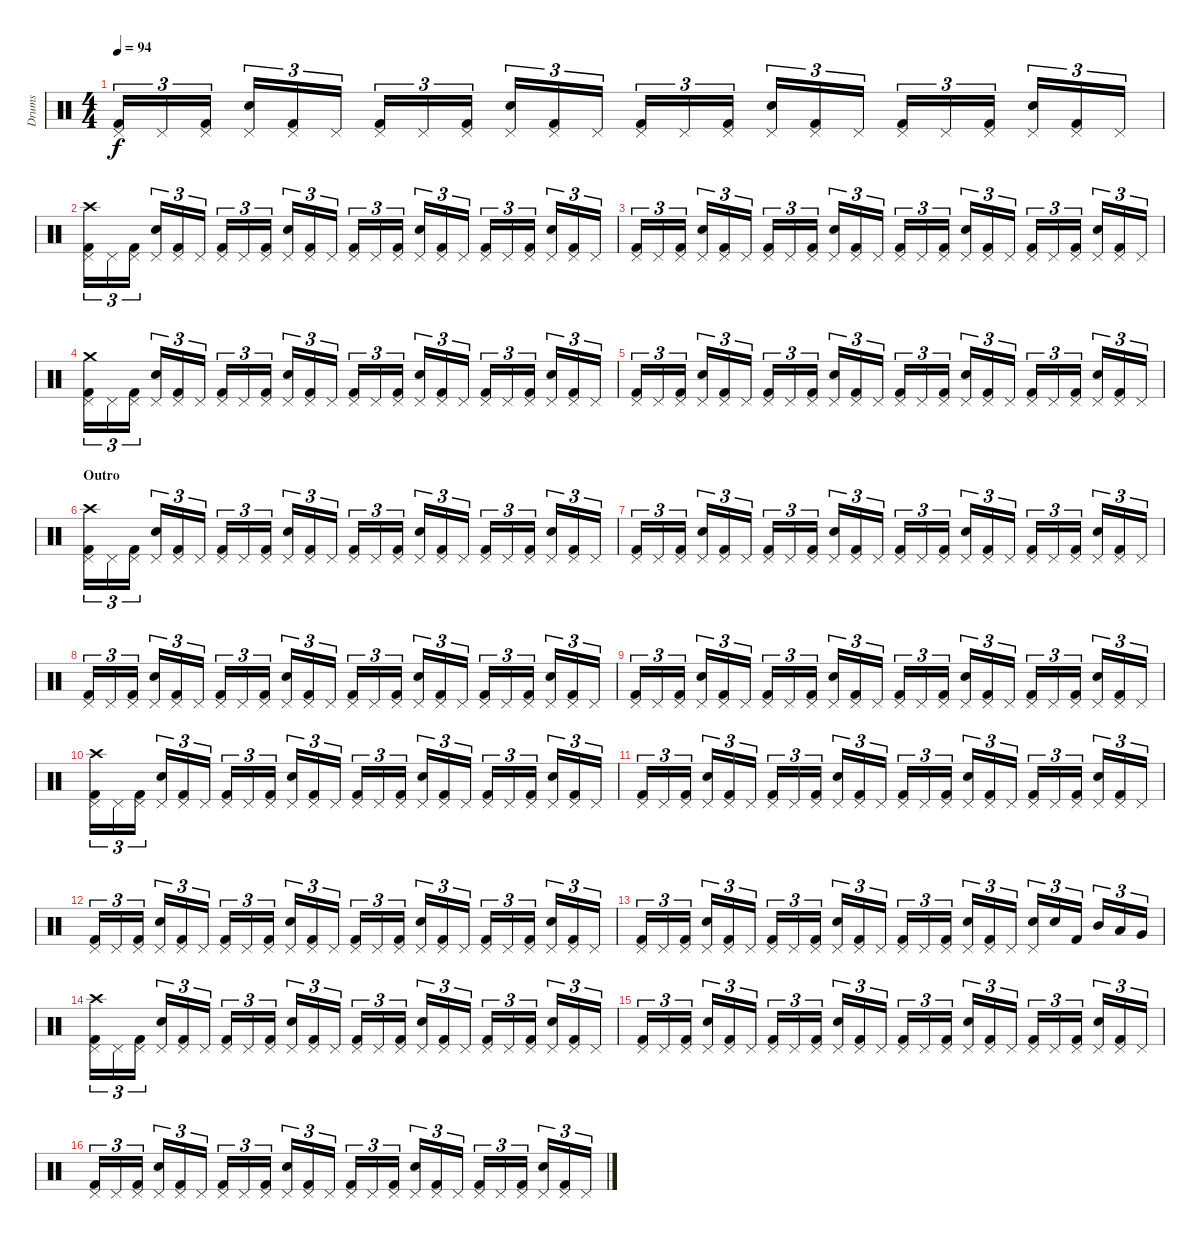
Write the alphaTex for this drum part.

\track ("Drums" "Drums") {instrument percussion}
\staff {score}
\articulation defaults
\ts (4 4)
\tempo 94
\clef neutral
\ks c
("Kick (hit) 2" "Pedal Hi-Hat (hit)").16{tu (3 2) dy f} "Pedal Hi-Hat (hit)".16{tu (3 2)} ("Kick (hit) 2" "Pedal Hi-Hat (hit)").16{tu (3 2)} ("Snare (hit) 2" "Pedal Hi-Hat (hit)").16{tu (3 2)} ("Kick (hit) 2" "Pedal Hi-Hat (hit)").16{tu (3 2)} "Pedal Hi-Hat (hit)".16{tu (3 2)} ("Kick (hit) 2" "Pedal Hi-Hat (hit)").16{tu (3 2)} "Pedal Hi-Hat (hit)".16{tu (3 2)} ("Kick (hit) 2" "Pedal Hi-Hat (hit)").16{tu (3 2)} ("Snare (hit) 2" "Pedal Hi-Hat (hit)").16{tu (3 2)} ("Kick (hit) 2" "Pedal Hi-Hat (hit)").16{tu (3 2)} "Pedal Hi-Hat (hit)".16{tu (3 2)} ("Kick (hit) 2" "Pedal Hi-Hat (hit)").16{tu (3 2)} "Pedal Hi-Hat (hit)".16{tu (3 2)} ("Kick (hit) 2" "Pedal Hi-Hat (hit)").16{tu (3 2)} ("Snare (hit) 2" "Pedal Hi-Hat (hit)").16{tu (3 2)} ("Kick (hit) 2" "Pedal Hi-Hat (hit)").16{tu (3 2)} "Pedal Hi-Hat (hit)".16{tu (3 2)} ("Kick (hit) 2" "Pedal Hi-Hat (hit)").16{tu (3 2)} "Pedal Hi-Hat (hit)".16{tu (3 2)} ("Kick (hit) 2" "Pedal Hi-Hat (hit)").16{tu (3 2)} ("Snare (hit) 2" "Pedal Hi-Hat (hit)").16{tu (3 2)} ("Kick (hit) 2" "Pedal Hi-Hat (hit)").16{tu (3 2)} "Pedal Hi-Hat (hit)".16{tu (3 2)} |
("Kick (hit) 2" "Pedal Hi-Hat (hit)" "Crash high (hit)").16{tu (3 2)} "Pedal Hi-Hat (hit)".16{tu (3 2)} ("Kick (hit) 2" "Pedal Hi-Hat (hit)").16{tu (3 2)} ("Snare (hit) 2" "Pedal Hi-Hat (hit)").16{tu (3 2)} ("Kick (hit) 2" "Pedal Hi-Hat (hit)").16{tu (3 2)} "Pedal Hi-Hat (hit)".16{tu (3 2)} ("Kick (hit) 2" "Pedal Hi-Hat (hit)").16{tu (3 2)} "Pedal Hi-Hat (hit)".16{tu (3 2)} ("Kick (hit) 2" "Pedal Hi-Hat (hit)").16{tu (3 2)} ("Snare (hit) 2" "Pedal Hi-Hat (hit)").16{tu (3 2)} ("Kick (hit) 2" "Pedal Hi-Hat (hit)").16{tu (3 2)} "Pedal Hi-Hat (hit)".16{tu (3 2)} ("Kick (hit) 2" "Pedal Hi-Hat (hit)").16{tu (3 2)} "Pedal Hi-Hat (hit)".16{tu (3 2)} ("Kick (hit) 2" "Pedal Hi-Hat (hit)").16{tu (3 2)} ("Snare (hit) 2" "Pedal Hi-Hat (hit)").16{tu (3 2)} ("Kick (hit) 2" "Pedal Hi-Hat (hit)").16{tu (3 2)} "Pedal Hi-Hat (hit)".16{tu (3 2)} ("Kick (hit) 2" "Pedal Hi-Hat (hit)").16{tu (3 2)} "Pedal Hi-Hat (hit)".16{tu (3 2)} ("Kick (hit) 2" "Pedal Hi-Hat (hit)").16{tu (3 2)} ("Snare (hit) 2" "Pedal Hi-Hat (hit)").16{tu (3 2)} ("Kick (hit) 2" "Pedal Hi-Hat (hit)").16{tu (3 2)} "Pedal Hi-Hat (hit)".16{tu (3 2)} |
("Kick (hit) 2" "Pedal Hi-Hat (hit)").16{tu (3 2)} "Pedal Hi-Hat (hit)".16{tu (3 2)} ("Kick (hit) 2" "Pedal Hi-Hat (hit)").16{tu (3 2)} ("Snare (hit) 2" "Pedal Hi-Hat (hit)").16{tu (3 2)} ("Kick (hit) 2" "Pedal Hi-Hat (hit)").16{tu (3 2)} "Pedal Hi-Hat (hit)".16{tu (3 2)} ("Kick (hit) 2" "Pedal Hi-Hat (hit)").16{tu (3 2)} "Pedal Hi-Hat (hit)".16{tu (3 2)} ("Kick (hit) 2" "Pedal Hi-Hat (hit)").16{tu (3 2)} ("Snare (hit) 2" "Pedal Hi-Hat (hit)").16{tu (3 2)} ("Kick (hit) 2" "Pedal Hi-Hat (hit)").16{tu (3 2)} "Pedal Hi-Hat (hit)".16{tu (3 2)} ("Kick (hit) 2" "Pedal Hi-Hat (hit)").16{tu (3 2)} "Pedal Hi-Hat (hit)".16{tu (3 2)} ("Kick (hit) 2" "Pedal Hi-Hat (hit)").16{tu (3 2)} ("Snare (hit) 2" "Pedal Hi-Hat (hit)").16{tu (3 2)} ("Kick (hit) 2" "Pedal Hi-Hat (hit)").16{tu (3 2)} "Pedal Hi-Hat (hit)".16{tu (3 2)} ("Kick (hit) 2" "Pedal Hi-Hat (hit)").16{tu (3 2)} "Pedal Hi-Hat (hit)".16{tu (3 2)} ("Kick (hit) 2" "Pedal Hi-Hat (hit)").16{tu (3 2)} ("Snare (hit) 2" "Pedal Hi-Hat (hit)").16{tu (3 2)} ("Kick (hit) 2" "Pedal Hi-Hat (hit)").16{tu (3 2)} "Pedal Hi-Hat (hit)".16{tu (3 2)} |
("Kick (hit) 2" "Pedal Hi-Hat (hit)" "Crash medium (hit)").16{tu (3 2)} "Pedal Hi-Hat (hit)".16{tu (3 2)} ("Kick (hit) 2" "Pedal Hi-Hat (hit)").16{tu (3 2)} ("Snare (hit) 2" "Pedal Hi-Hat (hit)").16{tu (3 2)} ("Kick (hit) 2" "Pedal Hi-Hat (hit)").16{tu (3 2)} "Pedal Hi-Hat (hit)".16{tu (3 2)} ("Kick (hit) 2" "Pedal Hi-Hat (hit)").16{tu (3 2)} "Pedal Hi-Hat (hit)".16{tu (3 2)} ("Kick (hit) 2" "Pedal Hi-Hat (hit)").16{tu (3 2)} ("Snare (hit) 2" "Pedal Hi-Hat (hit)").16{tu (3 2)} ("Kick (hit) 2" "Pedal Hi-Hat (hit)").16{tu (3 2)} "Pedal Hi-Hat (hit)".16{tu (3 2)} ("Kick (hit) 2" "Pedal Hi-Hat (hit)").16{tu (3 2)} "Pedal Hi-Hat (hit)".16{tu (3 2)} ("Kick (hit) 2" "Pedal Hi-Hat (hit)").16{tu (3 2)} ("Snare (hit) 2" "Pedal Hi-Hat (hit)").16{tu (3 2)} ("Kick (hit) 2" "Pedal Hi-Hat (hit)").16{tu (3 2)} "Pedal Hi-Hat (hit)".16{tu (3 2)} ("Kick (hit) 2" "Pedal Hi-Hat (hit)").16{tu (3 2)} "Pedal Hi-Hat (hit)".16{tu (3 2)} ("Kick (hit) 2" "Pedal Hi-Hat (hit)").16{tu (3 2)} ("Snare (hit) 2" "Pedal Hi-Hat (hit)").16{tu (3 2)} ("Kick (hit) 2" "Pedal Hi-Hat (hit)").16{tu (3 2)} "Pedal Hi-Hat (hit)".16{tu (3 2)} |
("Kick (hit) 2" "Pedal Hi-Hat (hit)").16{tu (3 2)} "Pedal Hi-Hat (hit)".16{tu (3 2)} ("Kick (hit) 2" "Pedal Hi-Hat (hit)").16{tu (3 2)} ("Snare (hit) 2" "Pedal Hi-Hat (hit)").16{tu (3 2)} ("Kick (hit) 2" "Pedal Hi-Hat (hit)").16{tu (3 2)} "Pedal Hi-Hat (hit)".16{tu (3 2)} ("Kick (hit) 2" "Pedal Hi-Hat (hit)").16{tu (3 2)} "Pedal Hi-Hat (hit)".16{tu (3 2)} ("Kick (hit) 2" "Pedal Hi-Hat (hit)").16{tu (3 2)} ("Snare (hit) 2" "Pedal Hi-Hat (hit)").16{tu (3 2)} ("Kick (hit) 2" "Pedal Hi-Hat (hit)").16{tu (3 2)} "Pedal Hi-Hat (hit)".16{tu (3 2)} ("Kick (hit) 2" "Pedal Hi-Hat (hit)").16{tu (3 2)} "Pedal Hi-Hat (hit)".16{tu (3 2)} ("Kick (hit) 2" "Pedal Hi-Hat (hit)").16{tu (3 2)} ("Snare (hit) 2" "Pedal Hi-Hat (hit)").16{tu (3 2)} ("Kick (hit) 2" "Pedal Hi-Hat (hit)").16{tu (3 2)} "Pedal Hi-Hat (hit)".16{tu (3 2)} ("Kick (hit) 2" "Pedal Hi-Hat (hit)").16{tu (3 2)} "Pedal Hi-Hat (hit)".16{tu (3 2)} ("Kick (hit) 2" "Pedal Hi-Hat (hit)").16{tu (3 2)} ("Snare (hit) 2" "Pedal Hi-Hat (hit)").16{tu (3 2)} ("Kick (hit) 2" "Pedal Hi-Hat (hit)").16{tu (3 2)} "Pedal Hi-Hat (hit)".16{tu (3 2)} |
\section ("" "Outro")
("Kick (hit) 2" "Pedal Hi-Hat (hit)" "Crash high (hit)").16{tu (3 2)} "Pedal Hi-Hat (hit)".16{tu (3 2)} ("Kick (hit) 2" "Pedal Hi-Hat (hit)").16{tu (3 2)} ("Snare (hit) 2" "Pedal Hi-Hat (hit)").16{tu (3 2)} ("Kick (hit) 2" "Pedal Hi-Hat (hit)").16{tu (3 2)} "Pedal Hi-Hat (hit)".16{tu (3 2)} ("Kick (hit) 2" "Pedal Hi-Hat (hit)").16{tu (3 2)} "Pedal Hi-Hat (hit)".16{tu (3 2)} ("Kick (hit) 2" "Pedal Hi-Hat (hit)").16{tu (3 2)} ("Snare (hit) 2" "Pedal Hi-Hat (hit)").16{tu (3 2)} ("Kick (hit) 2" "Pedal Hi-Hat (hit)").16{tu (3 2)} "Pedal Hi-Hat (hit)".16{tu (3 2)} ("Kick (hit) 2" "Pedal Hi-Hat (hit)").16{tu (3 2)} "Pedal Hi-Hat (hit)".16{tu (3 2)} ("Kick (hit) 2" "Pedal Hi-Hat (hit)").16{tu (3 2)} ("Snare (hit) 2" "Pedal Hi-Hat (hit)").16{tu (3 2)} ("Kick (hit) 2" "Pedal Hi-Hat (hit)").16{tu (3 2)} "Pedal Hi-Hat (hit)".16{tu (3 2)} ("Kick (hit) 2" "Pedal Hi-Hat (hit)").16{tu (3 2)} "Pedal Hi-Hat (hit)".16{tu (3 2)} ("Kick (hit) 2" "Pedal Hi-Hat (hit)").16{tu (3 2)} ("Snare (hit) 2" "Pedal Hi-Hat (hit)").16{tu (3 2)} ("Kick (hit) 2" "Pedal Hi-Hat (hit)").16{tu (3 2)} "Pedal Hi-Hat (hit)".16{tu (3 2)} |
("Kick (hit) 2" "Pedal Hi-Hat (hit)").16{tu (3 2)} "Pedal Hi-Hat (hit)".16{tu (3 2)} ("Kick (hit) 2" "Pedal Hi-Hat (hit)").16{tu (3 2)} ("Snare (hit) 2" "Pedal Hi-Hat (hit)").16{tu (3 2)} ("Kick (hit) 2" "Pedal Hi-Hat (hit)").16{tu (3 2)} "Pedal Hi-Hat (hit)".16{tu (3 2)} ("Kick (hit) 2" "Pedal Hi-Hat (hit)").16{tu (3 2)} "Pedal Hi-Hat (hit)".16{tu (3 2)} ("Kick (hit) 2" "Pedal Hi-Hat (hit)").16{tu (3 2)} ("Snare (hit) 2" "Pedal Hi-Hat (hit)").16{tu (3 2)} ("Kick (hit) 2" "Pedal Hi-Hat (hit)").16{tu (3 2)} "Pedal Hi-Hat (hit)".16{tu (3 2)} ("Kick (hit) 2" "Pedal Hi-Hat (hit)").16{tu (3 2)} "Pedal Hi-Hat (hit)".16{tu (3 2)} ("Kick (hit) 2" "Pedal Hi-Hat (hit)").16{tu (3 2)} ("Snare (hit) 2" "Pedal Hi-Hat (hit)").16{tu (3 2)} ("Kick (hit) 2" "Pedal Hi-Hat (hit)").16{tu (3 2)} "Pedal Hi-Hat (hit)".16{tu (3 2)} ("Kick (hit) 2" "Pedal Hi-Hat (hit)").16{tu (3 2)} "Pedal Hi-Hat (hit)".16{tu (3 2)} ("Kick (hit) 2" "Pedal Hi-Hat (hit)").16{tu (3 2)} ("Snare (hit) 2" "Pedal Hi-Hat (hit)").16{tu (3 2)} ("Kick (hit) 2" "Pedal Hi-Hat (hit)").16{tu (3 2)} "Pedal Hi-Hat (hit)".16{tu (3 2)} |
("Kick (hit) 2" "Pedal Hi-Hat (hit)").16{tu (3 2)} "Pedal Hi-Hat (hit)".16{tu (3 2)} ("Kick (hit) 2" "Pedal Hi-Hat (hit)").16{tu (3 2)} ("Snare (hit) 2" "Pedal Hi-Hat (hit)").16{tu (3 2)} ("Kick (hit) 2" "Pedal Hi-Hat (hit)").16{tu (3 2)} "Pedal Hi-Hat (hit)".16{tu (3 2)} ("Kick (hit) 2" "Pedal Hi-Hat (hit)").16{tu (3 2)} "Pedal Hi-Hat (hit)".16{tu (3 2)} ("Kick (hit) 2" "Pedal Hi-Hat (hit)").16{tu (3 2)} ("Snare (hit) 2" "Pedal Hi-Hat (hit)").16{tu (3 2)} ("Kick (hit) 2" "Pedal Hi-Hat (hit)").16{tu (3 2)} "Pedal Hi-Hat (hit)".16{tu (3 2)} ("Kick (hit) 2" "Pedal Hi-Hat (hit)").16{tu (3 2)} "Pedal Hi-Hat (hit)".16{tu (3 2)} ("Kick (hit) 2" "Pedal Hi-Hat (hit)").16{tu (3 2)} ("Snare (hit) 2" "Pedal Hi-Hat (hit)").16{tu (3 2)} ("Kick (hit) 2" "Pedal Hi-Hat (hit)").16{tu (3 2)} "Pedal Hi-Hat (hit)".16{tu (3 2)} ("Kick (hit) 2" "Pedal Hi-Hat (hit)").16{tu (3 2)} "Pedal Hi-Hat (hit)".16{tu (3 2)} ("Kick (hit) 2" "Pedal Hi-Hat (hit)").16{tu (3 2)} ("Snare (hit) 2" "Pedal Hi-Hat (hit)").16{tu (3 2)} ("Kick (hit) 2" "Pedal Hi-Hat (hit)").16{tu (3 2)} "Pedal Hi-Hat (hit)".16{tu (3 2)} |
("Kick (hit) 2" "Pedal Hi-Hat (hit)").16{tu (3 2)} "Pedal Hi-Hat (hit)".16{tu (3 2)} ("Kick (hit) 2" "Pedal Hi-Hat (hit)").16{tu (3 2)} ("Snare (hit) 2" "Pedal Hi-Hat (hit)").16{tu (3 2)} ("Kick (hit) 2" "Pedal Hi-Hat (hit)").16{tu (3 2)} "Pedal Hi-Hat (hit)".16{tu (3 2)} ("Kick (hit) 2" "Pedal Hi-Hat (hit)").16{tu (3 2)} "Pedal Hi-Hat (hit)".16{tu (3 2)} ("Kick (hit) 2" "Pedal Hi-Hat (hit)").16{tu (3 2)} ("Snare (hit) 2" "Pedal Hi-Hat (hit)").16{tu (3 2)} ("Kick (hit) 2" "Pedal Hi-Hat (hit)").16{tu (3 2)} "Pedal Hi-Hat (hit)".16{tu (3 2)} ("Kick (hit) 2" "Pedal Hi-Hat (hit)").16{tu (3 2)} "Pedal Hi-Hat (hit)".16{tu (3 2)} ("Kick (hit) 2" "Pedal Hi-Hat (hit)").16{tu (3 2)} ("Snare (hit) 2" "Pedal Hi-Hat (hit)").16{tu (3 2)} ("Kick (hit) 2" "Pedal Hi-Hat (hit)").16{tu (3 2)} "Pedal Hi-Hat (hit)".16{tu (3 2)} ("Kick (hit) 2" "Pedal Hi-Hat (hit)").16{tu (3 2)} "Pedal Hi-Hat (hit)".16{tu (3 2)} ("Kick (hit) 2" "Pedal Hi-Hat (hit)").16{tu (3 2)} ("Snare (hit) 2" "Pedal Hi-Hat (hit)").16{tu (3 2)} ("Kick (hit) 2" "Pedal Hi-Hat (hit)").16{tu (3 2)} "Pedal Hi-Hat (hit)".16{tu (3 2)} |
("Kick (hit) 2" "Pedal Hi-Hat (hit)" "Crash high (hit)").16{tu (3 2)} "Pedal Hi-Hat (hit)".16{tu (3 2)} ("Kick (hit) 2" "Pedal Hi-Hat (hit)").16{tu (3 2)} ("Snare (hit) 2" "Pedal Hi-Hat (hit)").16{tu (3 2)} ("Kick (hit) 2" "Pedal Hi-Hat (hit)").16{tu (3 2)} "Pedal Hi-Hat (hit)".16{tu (3 2)} ("Kick (hit) 2" "Pedal Hi-Hat (hit)").16{tu (3 2)} "Pedal Hi-Hat (hit)".16{tu (3 2)} ("Kick (hit) 2" "Pedal Hi-Hat (hit)").16{tu (3 2)} ("Snare (hit) 2" "Pedal Hi-Hat (hit)").16{tu (3 2)} ("Kick (hit) 2" "Pedal Hi-Hat (hit)").16{tu (3 2)} "Pedal Hi-Hat (hit)".16{tu (3 2)} ("Kick (hit) 2" "Pedal Hi-Hat (hit)").16{tu (3 2)} "Pedal Hi-Hat (hit)".16{tu (3 2)} ("Kick (hit) 2" "Pedal Hi-Hat (hit)").16{tu (3 2)} ("Snare (hit) 2" "Pedal Hi-Hat (hit)").16{tu (3 2)} ("Kick (hit) 2" "Pedal Hi-Hat (hit)").16{tu (3 2)} "Pedal Hi-Hat (hit)".16{tu (3 2)} ("Kick (hit) 2" "Pedal Hi-Hat (hit)").16{tu (3 2)} "Pedal Hi-Hat (hit)".16{tu (3 2)} ("Kick (hit) 2" "Pedal Hi-Hat (hit)").16{tu (3 2)} ("Snare (hit) 2" "Pedal Hi-Hat (hit)").16{tu (3 2)} ("Kick (hit) 2" "Pedal Hi-Hat (hit)").16{tu (3 2)} "Pedal Hi-Hat (hit)".16{tu (3 2)} |
("Kick (hit) 2" "Pedal Hi-Hat (hit)").16{tu (3 2)} "Pedal Hi-Hat (hit)".16{tu (3 2)} ("Kick (hit) 2" "Pedal Hi-Hat (hit)").16{tu (3 2)} ("Snare (hit) 2" "Pedal Hi-Hat (hit)").16{tu (3 2)} ("Kick (hit) 2" "Pedal Hi-Hat (hit)").16{tu (3 2)} "Pedal Hi-Hat (hit)".16{tu (3 2)} ("Kick (hit) 2" "Pedal Hi-Hat (hit)").16{tu (3 2)} "Pedal Hi-Hat (hit)".16{tu (3 2)} ("Kick (hit) 2" "Pedal Hi-Hat (hit)").16{tu (3 2)} ("Snare (hit) 2" "Pedal Hi-Hat (hit)").16{tu (3 2)} ("Kick (hit) 2" "Pedal Hi-Hat (hit)").16{tu (3 2)} "Pedal Hi-Hat (hit)".16{tu (3 2)} ("Kick (hit) 2" "Pedal Hi-Hat (hit)").16{tu (3 2)} "Pedal Hi-Hat (hit)".16{tu (3 2)} ("Kick (hit) 2" "Pedal Hi-Hat (hit)").16{tu (3 2)} ("Snare (hit) 2" "Pedal Hi-Hat (hit)").16{tu (3 2)} ("Kick (hit) 2" "Pedal Hi-Hat (hit)").16{tu (3 2)} "Pedal Hi-Hat (hit)".16{tu (3 2)} ("Kick (hit) 2" "Pedal Hi-Hat (hit)").16{tu (3 2)} "Pedal Hi-Hat (hit)".16{tu (3 2)} ("Kick (hit) 2" "Pedal Hi-Hat (hit)").16{tu (3 2)} ("Snare (hit) 2" "Pedal Hi-Hat (hit)").16{tu (3 2)} ("Kick (hit) 2" "Pedal Hi-Hat (hit)").16{tu (3 2)} "Pedal Hi-Hat (hit)".16{tu (3 2)} |
("Kick (hit) 2" "Pedal Hi-Hat (hit)").16{tu (3 2)} "Pedal Hi-Hat (hit)".16{tu (3 2)} ("Kick (hit) 2" "Pedal Hi-Hat (hit)").16{tu (3 2)} ("Snare (hit) 2" "Pedal Hi-Hat (hit)").16{tu (3 2)} ("Kick (hit) 2" "Pedal Hi-Hat (hit)").16{tu (3 2)} "Pedal Hi-Hat (hit)".16{tu (3 2)} ("Kick (hit) 2" "Pedal Hi-Hat (hit)").16{tu (3 2)} "Pedal Hi-Hat (hit)".16{tu (3 2)} ("Kick (hit) 2" "Pedal Hi-Hat (hit)").16{tu (3 2)} ("Snare (hit) 2" "Pedal Hi-Hat (hit)").16{tu (3 2)} ("Kick (hit) 2" "Pedal Hi-Hat (hit)").16{tu (3 2)} "Pedal Hi-Hat (hit)".16{tu (3 2)} ("Kick (hit) 2" "Pedal Hi-Hat (hit)").16{tu (3 2)} "Pedal Hi-Hat (hit)".16{tu (3 2)} ("Kick (hit) 2" "Pedal Hi-Hat (hit)").16{tu (3 2)} ("Snare (hit) 2" "Pedal Hi-Hat (hit)").16{tu (3 2)} ("Kick (hit) 2" "Pedal Hi-Hat (hit)").16{tu (3 2)} "Pedal Hi-Hat (hit)".16{tu (3 2)} ("Kick (hit) 2" "Pedal Hi-Hat (hit)").16{tu (3 2)} "Pedal Hi-Hat (hit)".16{tu (3 2)} ("Kick (hit) 2" "Pedal Hi-Hat (hit)").16{tu (3 2)} ("Snare (hit) 2" "Pedal Hi-Hat (hit)").16{tu (3 2)} ("Kick (hit) 2" "Pedal Hi-Hat (hit)").16{tu (3 2)} "Pedal Hi-Hat (hit)".16{tu (3 2)} |
("Kick (hit) 2" "Pedal Hi-Hat (hit)").16{tu (3 2)} "Pedal Hi-Hat (hit)".16{tu (3 2)} ("Kick (hit) 2" "Pedal Hi-Hat (hit)").16{tu (3 2)} ("Snare (hit) 2" "Pedal Hi-Hat (hit)").16{tu (3 2)} ("Kick (hit) 2" "Pedal Hi-Hat (hit)").16{tu (3 2)} "Pedal Hi-Hat (hit)".16{tu (3 2)} ("Kick (hit) 2" "Pedal Hi-Hat (hit)").16{tu (3 2)} "Pedal Hi-Hat (hit)".16{tu (3 2)} ("Kick (hit) 2" "Pedal Hi-Hat (hit)").16{tu (3 2)} ("Snare (hit) 2" "Pedal Hi-Hat (hit)").16{tu (3 2)} ("Kick (hit) 2" "Pedal Hi-Hat (hit)").16{tu (3 2)} "Pedal Hi-Hat (hit)".16{tu (3 2)} ("Kick (hit) 2" "Pedal Hi-Hat (hit)").16{tu (3 2)} "Pedal Hi-Hat (hit)".16{tu (3 2)} ("Kick (hit) 2" "Pedal Hi-Hat (hit)").16{tu (3 2)} ("Snare (hit) 2" "Pedal Hi-Hat (hit)").16{tu (3 2)} ("Kick (hit) 2" "Pedal Hi-Hat (hit)").16{tu (3 2)} "Pedal Hi-Hat (hit)".16{tu (3 2)} ("Snare (hit) 2" "Pedal Hi-Hat (hit)").16{tu (3 2)} "Snare (hit) 2".16{tu (3 2)} "Kick (hit) 2".16{tu (3 2)} "Mid Tom (hit)".16{tu (3 2)} "Low Tom (hit)".16{tu (3 2)} "Very Low Tom (hit)".16{tu (3 2)} |
("Kick (hit) 2" "Pedal Hi-Hat (hit)" "Crash high (hit)").16{tu (3 2)} "Pedal Hi-Hat (hit)".16{tu (3 2)} ("Kick (hit) 2" "Pedal Hi-Hat (hit)").16{tu (3 2)} ("Snare (hit) 2" "Pedal Hi-Hat (hit)").16{tu (3 2)} ("Kick (hit) 2" "Pedal Hi-Hat (hit)").16{tu (3 2)} "Pedal Hi-Hat (hit)".16{tu (3 2)} ("Kick (hit) 2" "Pedal Hi-Hat (hit)").16{tu (3 2)} "Pedal Hi-Hat (hit)".16{tu (3 2)} ("Kick (hit) 2" "Pedal Hi-Hat (hit)").16{tu (3 2)} ("Snare (hit) 2" "Pedal Hi-Hat (hit)").16{tu (3 2)} ("Kick (hit) 2" "Pedal Hi-Hat (hit)").16{tu (3 2)} "Pedal Hi-Hat (hit)".16{tu (3 2)} ("Kick (hit) 2" "Pedal Hi-Hat (hit)").16{tu (3 2)} "Pedal Hi-Hat (hit)".16{tu (3 2)} ("Kick (hit) 2" "Pedal Hi-Hat (hit)").16{tu (3 2)} ("Snare (hit) 2" "Pedal Hi-Hat (hit)").16{tu (3 2)} ("Kick (hit) 2" "Pedal Hi-Hat (hit)").16{tu (3 2)} "Pedal Hi-Hat (hit)".16{tu (3 2)} ("Kick (hit) 2" "Pedal Hi-Hat (hit)").16{tu (3 2)} "Pedal Hi-Hat (hit)".16{tu (3 2)} ("Kick (hit) 2" "Pedal Hi-Hat (hit)").16{tu (3 2)} ("Snare (hit) 2" "Pedal Hi-Hat (hit)").16{tu (3 2)} ("Kick (hit) 2" "Pedal Hi-Hat (hit)").16{tu (3 2)} "Pedal Hi-Hat (hit)".16{tu (3 2)} |
("Kick (hit) 2" "Pedal Hi-Hat (hit)").16{tu (3 2)} "Pedal Hi-Hat (hit)".16{tu (3 2)} ("Kick (hit) 2" "Pedal Hi-Hat (hit)").16{tu (3 2)} ("Snare (hit) 2" "Pedal Hi-Hat (hit)").16{tu (3 2)} ("Kick (hit) 2" "Pedal Hi-Hat (hit)").16{tu (3 2)} "Pedal Hi-Hat (hit)".16{tu (3 2)} ("Kick (hit) 2" "Pedal Hi-Hat (hit)").16{tu (3 2)} "Pedal Hi-Hat (hit)".16{tu (3 2)} ("Kick (hit) 2" "Pedal Hi-Hat (hit)").16{tu (3 2)} ("Snare (hit) 2" "Pedal Hi-Hat (hit)").16{tu (3 2)} ("Kick (hit) 2" "Pedal Hi-Hat (hit)").16{tu (3 2)} "Pedal Hi-Hat (hit)".16{tu (3 2)} ("Kick (hit) 2" "Pedal Hi-Hat (hit)").16{tu (3 2)} "Pedal Hi-Hat (hit)".16{tu (3 2)} ("Kick (hit) 2" "Pedal Hi-Hat (hit)").16{tu (3 2)} ("Snare (hit) 2" "Pedal Hi-Hat (hit)").16{tu (3 2)} ("Kick (hit) 2" "Pedal Hi-Hat (hit)").16{tu (3 2)} "Pedal Hi-Hat (hit)".16{tu (3 2)} ("Kick (hit) 2" "Pedal Hi-Hat (hit)").16{tu (3 2)} "Pedal Hi-Hat (hit)".16{tu (3 2)} ("Kick (hit) 2" "Pedal Hi-Hat (hit)").16{tu (3 2)} ("Snare (hit) 2" "Pedal Hi-Hat (hit)").16{tu (3 2)} ("Kick (hit) 2" "Pedal Hi-Hat (hit)").16{tu (3 2)} "Pedal Hi-Hat (hit)".16{tu (3 2)} |
("Kick (hit) 2" "Pedal Hi-Hat (hit)").16{tu (3 2)} "Pedal Hi-Hat (hit)".16{tu (3 2)} ("Kick (hit) 2" "Pedal Hi-Hat (hit)").16{tu (3 2)} ("Snare (hit) 2" "Pedal Hi-Hat (hit)").16{tu (3 2)} ("Kick (hit) 2" "Pedal Hi-Hat (hit)").16{tu (3 2)} "Pedal Hi-Hat (hit)".16{tu (3 2)} ("Kick (hit) 2" "Pedal Hi-Hat (hit)").16{tu (3 2)} "Pedal Hi-Hat (hit)".16{tu (3 2)} ("Kick (hit) 2" "Pedal Hi-Hat (hit)").16{tu (3 2)} ("Snare (hit) 2" "Pedal Hi-Hat (hit)").16{tu (3 2)} ("Kick (hit) 2" "Pedal Hi-Hat (hit)").16{tu (3 2)} "Pedal Hi-Hat (hit)".16{tu (3 2)} ("Kick (hit) 2" "Pedal Hi-Hat (hit)").16{tu (3 2)} "Pedal Hi-Hat (hit)".16{tu (3 2)} ("Kick (hit) 2" "Pedal Hi-Hat (hit)").16{tu (3 2)} ("Snare (hit) 2" "Pedal Hi-Hat (hit)").16{tu (3 2)} ("Kick (hit) 2" "Pedal Hi-Hat (hit)").16{tu (3 2)} "Pedal Hi-Hat (hit)".16{tu (3 2)} ("Kick (hit) 2" "Pedal Hi-Hat (hit)").16{tu (3 2)} "Pedal Hi-Hat (hit)".16{tu (3 2)} ("Kick (hit) 2" "Pedal Hi-Hat (hit)").16{tu (3 2)} ("Snare (hit) 2" "Pedal Hi-Hat (hit)").16{tu (3 2)} ("Kick (hit) 2" "Pedal Hi-Hat (hit)").16{tu (3 2)} "Pedal Hi-Hat (hit)".16{tu (3 2)}
